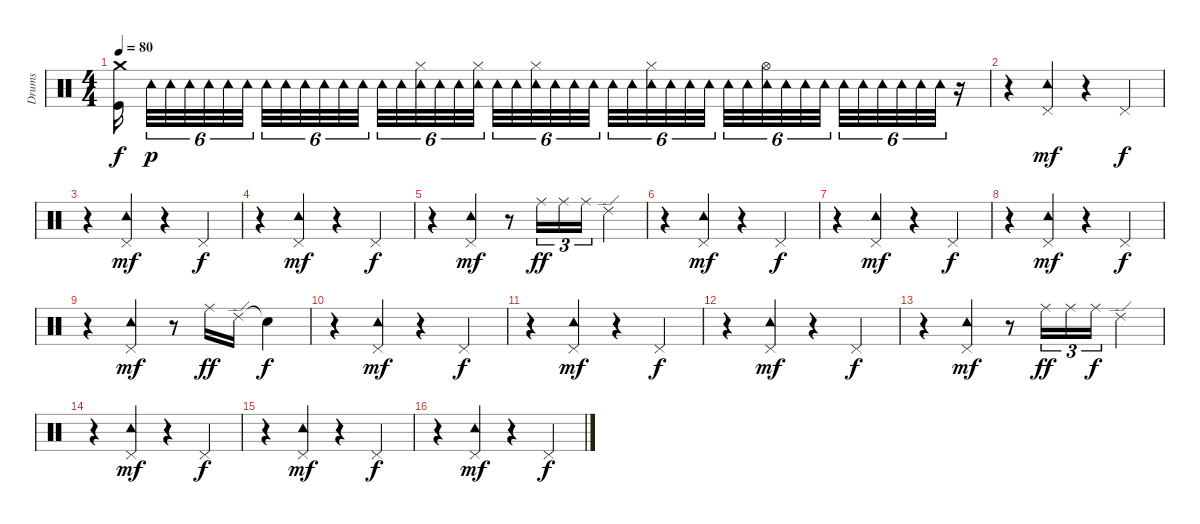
\track ("Drums" "Drums") {instrument percussion}
\staff {score}
\articulation defaults
\ts (4 4)
\tempo 80
\clef neutral
\ks c
("Crash medium (hit)" "Kick (hit)").16{dy f} "Tambourine (hit)".32{tu (6 4) dy p} "Tambourine (hit)".32{tu (6 4)} "Tambourine (hit)".32{tu (6 4)} "Tambourine (hit)".32{tu (6 4)} "Tambourine (hit)".32{tu (6 4)} "Tambourine (hit)".32{tu (6 4)} "Tambourine (hit)".32{tu (6 4)} "Tambourine (hit)".32{tu (6 4)} "Tambourine (hit)".32{tu (6 4)} "Tambourine (hit)".32{tu (6 4)} "Tambourine (hit)".32{tu (6 4)} "Tambourine (hit)".32{tu (6 4)} "Tambourine (hit)".32{tu (6 4)} "Tambourine (hit)".32{tu (6 4)} ("Hi-Hat (closed)" "Tambourine (hit)").32{tu (6 4)} "Tambourine (hit)".32{tu (6 4)} "Tambourine (hit)".32{tu (6 4)} ("Hi-Hat (closed)" "Tambourine (hit)").32{tu (6 4)} "Tambourine (hit)".32{tu (6 4)} "Tambourine (hit)".32{tu (6 4)} ("Hi-Hat (closed)" "Tambourine (hit)").32{tu (6 4)} "Tambourine (hit)".32{tu (6 4)} "Tambourine (hit)".32{tu (6 4)} "Tambourine (hit)".32{tu (6 4)} "Tambourine (hit)".32{tu (6 4)} "Tambourine (hit)".32{tu (6 4)} ("Hi-Hat (closed)" "Tambourine (hit)").32{tu (6 4)} "Tambourine (hit)".32{tu (6 4)} "Tambourine (hit)".32{tu (6 4)} "Tambourine (hit)".32{tu (6 4)} "Tambourine (hit)".32{tu (6 4)} "Tambourine (hit)".32{tu (6 4)} ("Hi-Hat (open)" "Tambourine (hit)").32{tu (6 4)} "Tambourine (hit)".32{tu (6 4)} "Tambourine (hit)".32{tu (6 4)} "Tambourine (hit)".32{tu (6 4)} "Tambourine (hit)".32{tu (6 4)} "Tambourine (hit)".32{tu (6 4)} "Tambourine (hit)".32{tu (6 4)} "Tambourine (hit)".32{tu (6 4)} "Tambourine (hit)".32{tu (6 4)} "Tambourine (hit)".32{tu (6 4)} r.16 |
r.4 ("Tambourine (hit)" "Pedal Hi-Hat (hit)").4{dy mf} r.4 "Pedal Hi-Hat (hit)".4{dy f} |
r.4 ("Tambourine (hit)" "Pedal Hi-Hat (hit)").4{dy mf} r.4 "Pedal Hi-Hat (hit)".4{dy f} |
r.4 ("Tambourine (hit)" "Pedal Hi-Hat (hit)").4{dy mf} r.4 "Pedal Hi-Hat (hit)".4{dy f} |
r.4 ("Tambourine (hit)" "Pedal Hi-Hat (hit)").4{dy mf} r.8 "Ride (middle)".16{tu (3 2) dy ff} "Ride (middle)".16{tu (3 2)} "Ride (middle)".16{tu (3 2)} "Ride (edge) 2".4 |
r.4 ("Tambourine (hit)" "Pedal Hi-Hat (hit)").4{dy mf} r.4 "Pedal Hi-Hat (hit)".4{dy f} |
r.4 ("Tambourine (hit)" "Pedal Hi-Hat (hit)").4{dy mf} r.4 "Pedal Hi-Hat (hit)".4{dy f} |
r.4 ("Tambourine (hit)" "Pedal Hi-Hat (hit)").4{dy mf} r.4 "Pedal Hi-Hat (hit)".4{dy f} |
r.4 ("Tambourine (hit)" "Pedal Hi-Hat (hit)").4{dy mf} r.8 "Ride (middle)".16{dy ff} "Ride (edge) 2".16 "Snare (hit)"{t}.4{dy f} |
r.4 ("Tambourine (hit)" "Pedal Hi-Hat (hit)").4{dy mf} r.4 "Pedal Hi-Hat (hit)".4{dy f} |
r.4 ("Tambourine (hit)" "Pedal Hi-Hat (hit)").4{dy mf} r.4 "Pedal Hi-Hat (hit)".4{dy f} |
r.4 ("Tambourine (hit)" "Pedal Hi-Hat (hit)").4{dy mf} r.4 "Pedal Hi-Hat (hit)".4{dy f} |
r.4 ("Tambourine (hit)" "Pedal Hi-Hat (hit)").4{dy mf} r.8 "Ride (middle)".16{tu (3 2) dy ff} "Ride (middle)".16{tu (3 2)} "Ride (middle)".16{tu (3 2) dy f} "Ride (edge) 2".4 |
r.4 ("Tambourine (hit)" "Pedal Hi-Hat (hit)").4{dy mf} r.4 "Pedal Hi-Hat (hit)".4{dy f} |
r.4 ("Tambourine (hit)" "Pedal Hi-Hat (hit)").4{dy mf} r.4 "Pedal Hi-Hat (hit)".4{dy f} |
r.4 ("Tambourine (hit)" "Pedal Hi-Hat (hit)").4{dy mf} r.4 "Pedal Hi-Hat (hit)".4{dy f}
